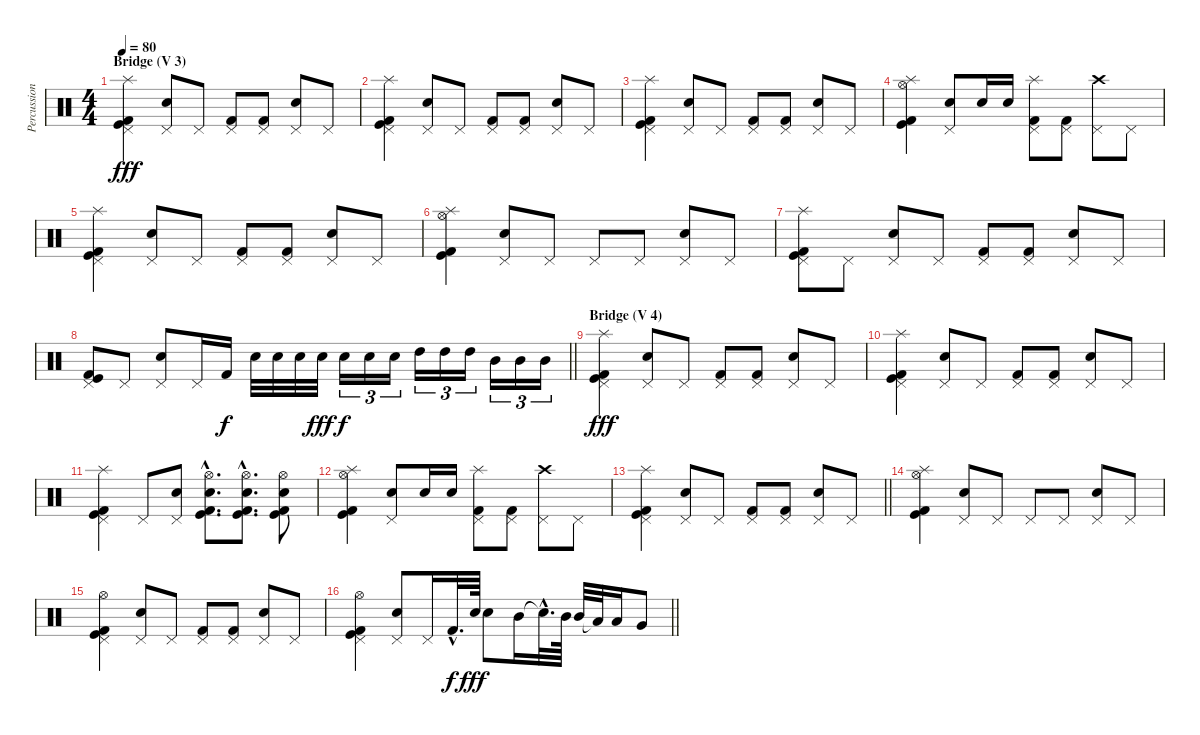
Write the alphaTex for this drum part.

\track ("Percussion" "Percussion") {instrument percussion}
\staff {score}
\articulation defaults
\ts (4 4)
\section ("" "Bridge (V 3)")
\tempo 80
\clef neutral
\ks c
("Splash (hit)" "Pedal Hi-Hat (hit)" "Kick (hit)" "Kick (hit) 2").4{dy fff} ("Snare (hit) 2" "Pedal Hi-Hat (hit)").8 "Pedal Hi-Hat (hit)".8 ("Pedal Hi-Hat (hit)" "Kick (hit) 2").8 ("Pedal Hi-Hat (hit)" "Kick (hit) 2").8 ("Snare (hit) 2" "Pedal Hi-Hat (hit)").8 "Pedal Hi-Hat (hit)".8 |
("Splash (hit)" "Pedal Hi-Hat (hit)" "Kick (hit)" "Kick (hit) 2").4 ("Snare (hit) 2" "Pedal Hi-Hat (hit)").8 "Pedal Hi-Hat (hit)".8 ("Pedal Hi-Hat (hit)" "Kick (hit) 2").8 ("Pedal Hi-Hat (hit)" "Kick (hit) 2").8 ("Snare (hit) 2" "Pedal Hi-Hat (hit)").8 "Pedal Hi-Hat (hit)".8 |
("Splash (hit)" "Pedal Hi-Hat (hit)" "Kick (hit)" "Kick (hit) 2").4 ("Snare (hit) 2" "Pedal Hi-Hat (hit)").8 "Pedal Hi-Hat (hit)".8 ("Pedal Hi-Hat (hit)" "Kick (hit) 2").8 ("Pedal Hi-Hat (hit)" "Kick (hit) 2").8 ("Snare (hit) 2" "Pedal Hi-Hat (hit)").8 "Pedal Hi-Hat (hit)".8 |
("Splash (hit)" "Hi-Hat (open)" "Kick (hit)" "Kick (hit) 2").4 ("Snare (hit) 2" "Pedal Hi-Hat (hit)").8 "Snare (hit) 2".16 "Snare (hit) 2".16 ("Splash (hit)" "Pedal Hi-Hat (hit)" "Kick (hit) 2").8 ("Pedal Hi-Hat (hit)" "Kick (hit) 2").8 ("Crash high (hit)" "Pedal Hi-Hat (hit)").8 "Pedal Hi-Hat (hit)".8 |
("Splash (hit)" "Pedal Hi-Hat (hit)" "Kick (hit)" "Kick (hit) 2").4 ("Snare (hit) 2" "Pedal Hi-Hat (hit)").8 "Pedal Hi-Hat (hit)".8 ("Pedal Hi-Hat (hit)" "Kick (hit) 2").8 ("Pedal Hi-Hat (hit)" "Kick (hit) 2").8 ("Snare (hit) 2" "Pedal Hi-Hat (hit)").8 "Pedal Hi-Hat (hit)".8 |
("Splash (hit)" "Hi-Hat (open)" "Kick (hit)" "Kick (hit) 2").4 ("Snare (hit) 2" "Pedal Hi-Hat (hit)").8 "Pedal Hi-Hat (hit)".8 "Pedal Hi-Hat (hit)".8 "Pedal Hi-Hat (hit)".8 ("Snare (hit) 2" "Pedal Hi-Hat (hit)").8 "Pedal Hi-Hat (hit)".8 |
("Splash (hit)" "Pedal Hi-Hat (hit)" "Kick (hit)" "Kick (hit) 2").8 "Pedal Hi-Hat (hit)".8 ("Snare (hit) 2" "Pedal Hi-Hat (hit)").8 "Pedal Hi-Hat (hit)".8 ("Pedal Hi-Hat (hit)" "Kick (hit) 2").8 ("Pedal Hi-Hat (hit)" "Kick (hit) 2").8 ("Snare (hit) 2" "Pedal Hi-Hat (hit)").8 "Pedal Hi-Hat (hit)".8 |
\barLineRight lightlight
("Pedal Hi-Hat (hit)" "Kick (hit)" "Kick (hit) 2").8 "Pedal Hi-Hat (hit)".8 ("Snare (hit) 2" "Pedal Hi-Hat (hit)").8 "Pedal Hi-Hat (hit)".16 "Kick (hit) 2".16{dy f} "Snare (hit) 2".32 "Snare (hit) 2".32 "Snare (hit) 2".32 "Snare (hit) 2".32{dy fff} "Snare (hit) 2".16{tu (3 2) dy f} "Snare (hit) 2".16{tu (3 2)} "Snare (hit) 2".16{tu (3 2)} "High Tom (hit)".16{tu (3 2) balance 12} "High Tom (hit)".16{tu (3 2)} "High Tom (hit)".16{tu (3 2) balance 9} "Mid Tom (hit)".16{tu (3 2) balance 4} "Mid Tom (hit)".16{tu (3 2) balance 3} "Mid Tom (hit)".16{tu (3 2) balance 8} |
\section ("" "Bridge (V 4)")
("Splash (hit)" "Pedal Hi-Hat (hit)" "Kick (hit)" "Kick (hit) 2").4{dy fff} ("Snare (hit) 2" "Pedal Hi-Hat (hit)").8 "Pedal Hi-Hat (hit)".8 ("Pedal Hi-Hat (hit)" "Kick (hit) 2").8 ("Pedal Hi-Hat (hit)" "Kick (hit) 2").8 ("Snare (hit) 2" "Pedal Hi-Hat (hit)").8 "Pedal Hi-Hat (hit)".8 |
("Splash (hit)" "Pedal Hi-Hat (hit)" "Kick (hit)" "Kick (hit) 2").4 ("Snare (hit) 2" "Pedal Hi-Hat (hit)").8 "Pedal Hi-Hat (hit)".8 ("Pedal Hi-Hat (hit)" "Kick (hit) 2").8 ("Pedal Hi-Hat (hit)" "Kick (hit) 2").8 ("Snare (hit) 2" "Pedal Hi-Hat (hit)").8 "Pedal Hi-Hat (hit)".8 |
("Splash (hit)" "Pedal Hi-Hat (hit)" "Kick (hit)" "Kick (hit) 2").4 "Pedal Hi-Hat (hit)".8 ("Snare (hit) 2" "Pedal Hi-Hat (hit)").8 ("Snare (hit) 2"{hac} "Hi-Hat (open)"{hac} "Kick (hit)"{hac} "Kick (hit) 2"{hac}).8{d} ("Snare (hit) 2"{hac} "Hi-Hat (open)"{hac} "Kick (hit)"{hac} "Kick (hit) 2"{hac}).8{d} ("Snare (hit) 2" "Hi-Hat (open)" "Kick (hit)" "Kick (hit) 2").8 |
("Splash (hit)" "Hi-Hat (open)" "Kick (hit)" "Kick (hit) 2").4 ("Snare (hit) 2" "Pedal Hi-Hat (hit)").8 "Snare (hit) 2".16 "Snare (hit) 2".16 ("Splash (hit)" "Pedal Hi-Hat (hit)" "Kick (hit) 2").8 ("Pedal Hi-Hat (hit)" "Kick (hit) 2").8 ("Crash high (hit)" "Pedal Hi-Hat (hit)").8 "Pedal Hi-Hat (hit)".8 |
\barLineRight lightlight
("Splash (hit)" "Pedal Hi-Hat (hit)" "Kick (hit)" "Kick (hit) 2").4 ("Snare (hit) 2" "Pedal Hi-Hat (hit)").8 "Pedal Hi-Hat (hit)".8 ("Pedal Hi-Hat (hit)" "Kick (hit) 2").8 ("Pedal Hi-Hat (hit)" "Kick (hit) 2").8 ("Snare (hit) 2" "Pedal Hi-Hat (hit)").8 "Pedal Hi-Hat (hit)".8 |
("Splash (hit)" "Hi-Hat (open)" "Kick (hit)" "Kick (hit) 2").4 ("Snare (hit) 2" "Pedal Hi-Hat (hit)").8 "Pedal Hi-Hat (hit)".8 "Pedal Hi-Hat (hit)".8 "Pedal Hi-Hat (hit)".8 ("Snare (hit) 2" "Pedal Hi-Hat (hit)").8 "Pedal Hi-Hat (hit)".8 |
("Hi-Hat (open)" "Pedal Hi-Hat (hit)" "Kick (hit)" "Kick (hit) 2").4 ("Snare (hit) 2" "Pedal Hi-Hat (hit)").8 "Pedal Hi-Hat (hit)".8 ("Pedal Hi-Hat (hit)" "Kick (hit) 2").8 ("Pedal Hi-Hat (hit)" "Kick (hit) 2").8 ("Snare (hit) 2" "Pedal Hi-Hat (hit)").8 "Pedal Hi-Hat (hit)".8 |
\barLineRight lightlight
("Hi-Hat (open)" "Pedal Hi-Hat (hit)" "Kick (hit)" "Kick (hit) 2").4 ("Snare (hit) 2" "Pedal Hi-Hat (hit)").8 "Pedal Hi-Hat (hit)".16 "Kick (hit) 2"{hac}.32{d dy f} "Snare (hit) 2".64{dy fff} "Snare (hit) 2".8 "Mid Tom (hit)".16{balance 15} "Snare (hit)"{hac t}.32{d} "Mid Tom (hit)".64 "Mid Tom (hit)".32{balance 13} "Low Tom (hit)"{t}.32{balance 7} "Low Tom (hit)".16 "Very Low Tom (hit)".8{balance 4}
